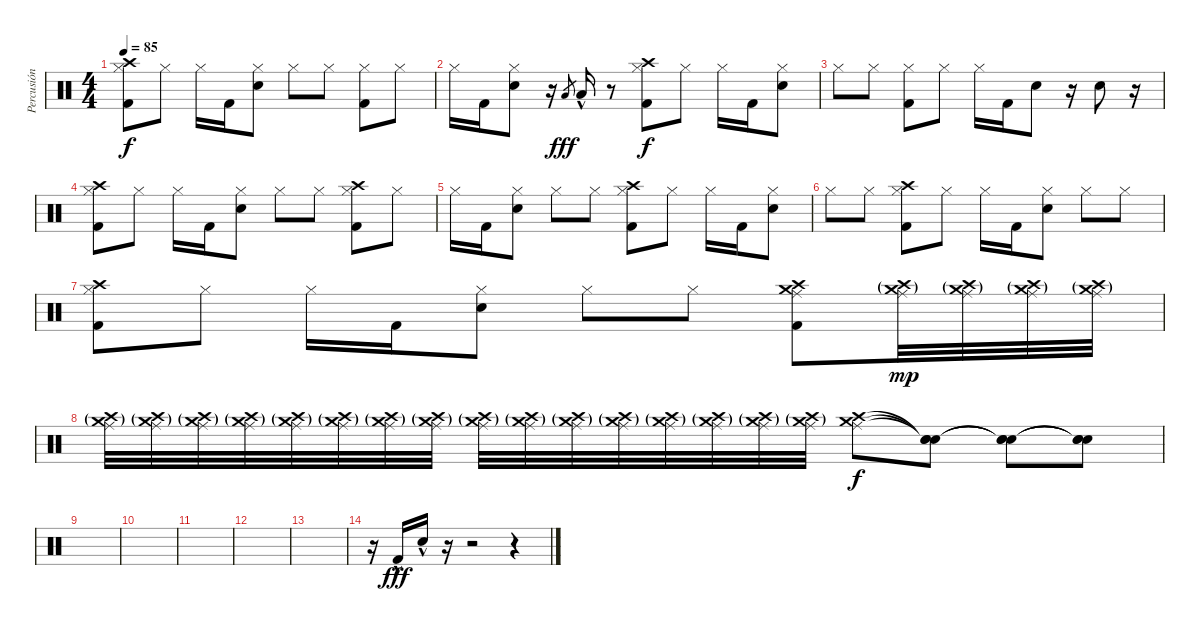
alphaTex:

\track ("Percusión" "Percusión") {instrument percussion}
\staff {score}
\articulation defaults
\ts (4 4)
\tempo 85
\clef neutral
\ks c
("Crash high (hit)" "Hi-Hat (closed)" "Kick (hit) 2").8{dy f} "Hi-Hat (closed)".8 "Hi-Hat (closed)".16 "Kick (hit) 2".16 ("Hi-Hat (closed)" "Snare (hit) 2").8 "Hi-Hat (closed)".8 "Hi-Hat (closed)".8 ("Hi-Hat (closed)" "Kick (hit) 2").8 "Hi-Hat (closed)".8 |
"Hi-Hat (closed)".16 "Kick (hit) 2".16 ("Hi-Hat (closed)" "Snare (hit) 2").8 r.16 "Low Tom (hit)".8{gr dy fff} "Low Tom (hit)"{hac}.16 r.8 ("Crash high (hit)" "Hi-Hat (closed)" "Kick (hit) 2").8{dy f} "Hi-Hat (closed)".8 "Hi-Hat (closed)".16 "Kick (hit) 2".16 ("Hi-Hat (closed)" "Snare (hit) 2").8 |
"Hi-Hat (closed)".8 "Hi-Hat (closed)".8 ("Hi-Hat (closed)" "Kick (hit) 2").8 "Hi-Hat (closed)".8 "Hi-Hat (closed)".16 "Kick (hit) 2".16 "Snare (hit) 2".8 r.16 "Snare (hit) 2".8 r.16 |
("Crash high (hit)" "Hi-Hat (closed)" "Kick (hit) 2").8 "Hi-Hat (closed)".8 "Hi-Hat (closed)".16 "Kick (hit) 2".16 ("Hi-Hat (closed)" "Snare (hit) 2").8 "Hi-Hat (closed)".8 "Hi-Hat (closed)".8 ("Crash high (hit)" "Hi-Hat (closed)" "Kick (hit) 2").8 "Hi-Hat (closed)".8 |
"Hi-Hat (closed)".16 "Kick (hit) 2".16 ("Hi-Hat (closed)" "Snare (hit) 2").8 "Hi-Hat (closed)".8 "Hi-Hat (closed)".8 ("Crash high (hit)" "Hi-Hat (closed)" "Kick (hit) 2").8 "Hi-Hat (closed)".8 "Hi-Hat (closed)".16 "Kick (hit) 2".16 ("Hi-Hat (closed)" "Snare (hit) 2").8 |
"Hi-Hat (closed)".8 "Hi-Hat (closed)".8 ("Crash high (hit)" "Hi-Hat (closed)" "Kick (hit) 2").8 "Hi-Hat (closed)".8 "Hi-Hat (closed)".16 "Kick (hit) 2".16 ("Hi-Hat (closed)" "Snare (hit) 2").8 "Hi-Hat (closed)".8 "Hi-Hat (closed)".8 |
("Crash high (hit)" "Hi-Hat (closed)" "Kick (hit) 2").8 "Hi-Hat (closed)".8 "Hi-Hat (closed)".16 "Kick (hit) 2".16 ("Hi-Hat (closed)" "Snare (hit) 2").8 "Hi-Hat (closed)".8 "Hi-Hat (closed)".8 ("Crash high (hit)" "Crash medium (hit)" "Ride (middle)" "Kick (hit) 2").8 ("Crash high (hit)"{g} "Crash medium (hit)"{g} "Ride (middle)").32{dy mp} ("Crash high (hit)"{g} "Crash medium (hit)"{g} "Ride (middle)").32 ("Crash high (hit)"{g} "Crash medium (hit)"{g} "Ride (middle)").32 ("Crash high (hit)"{g} "Crash medium (hit)"{g} "Ride (middle)").32 |
("Crash high (hit)"{g} "Crash medium (hit)"{g} "Ride (middle)").32 ("Crash high (hit)"{g} "Crash medium (hit)"{g} "Ride (middle)").32 ("Crash high (hit)"{g} "Crash medium (hit)"{g} "Ride (middle)").32 ("Crash high (hit)"{g} "Crash medium (hit)"{g} "Ride (middle)").32 ("Crash high (hit)"{g} "Crash medium (hit)"{g} "Ride (middle)").32 ("Crash high (hit)"{g} "Crash medium (hit)"{g} "Ride (middle)").32 ("Crash high (hit)"{g} "Crash medium (hit)"{g} "Ride (middle)").32 ("Crash high (hit)"{g} "Crash medium (hit)"{g} "Ride (middle)").32 ("Crash high (hit)"{g} "Crash medium (hit)"{g} "Ride (middle)").32 ("Crash high (hit)"{g} "Crash medium (hit)"{g} "Ride (middle)").32 ("Crash high (hit)"{g} "Crash medium (hit)"{g} "Ride (middle)").32 ("Crash high (hit)"{g} "Crash medium (hit)"{g} "Ride (middle)").32 ("Crash high (hit)"{g} "Crash medium (hit)"{g} "Ride (middle)").32 ("Crash high (hit)"{g} "Crash medium (hit)"{g} "Ride (middle)").32 ("Crash high (hit)"{g} "Crash medium (hit)"{g} "Ride (middle)").32 ("Crash high (hit)"{g} "Crash medium (hit)"{g} "Ride (middle)").32 ("Crash high (hit)" "Crash medium (hit)" "Ride (middle)").8{dy f} ("Snare (hit)"{t} "Snare (hit)"{t} "Snare (hit)"{t}).8 ("Snare (hit)"{t} "Snare (hit)"{t} "Snare (hit)"{t}).8 ("Snare (hit)"{t} "Snare (hit)"{t} "Snare (hit)"{t}).8 |
|
|
|
|
|
r.16 "Kick (hit) 2"{hac}.16{dy fff} "Snare (hit) 2"{hac}.16 r.16 r.2 r.4
